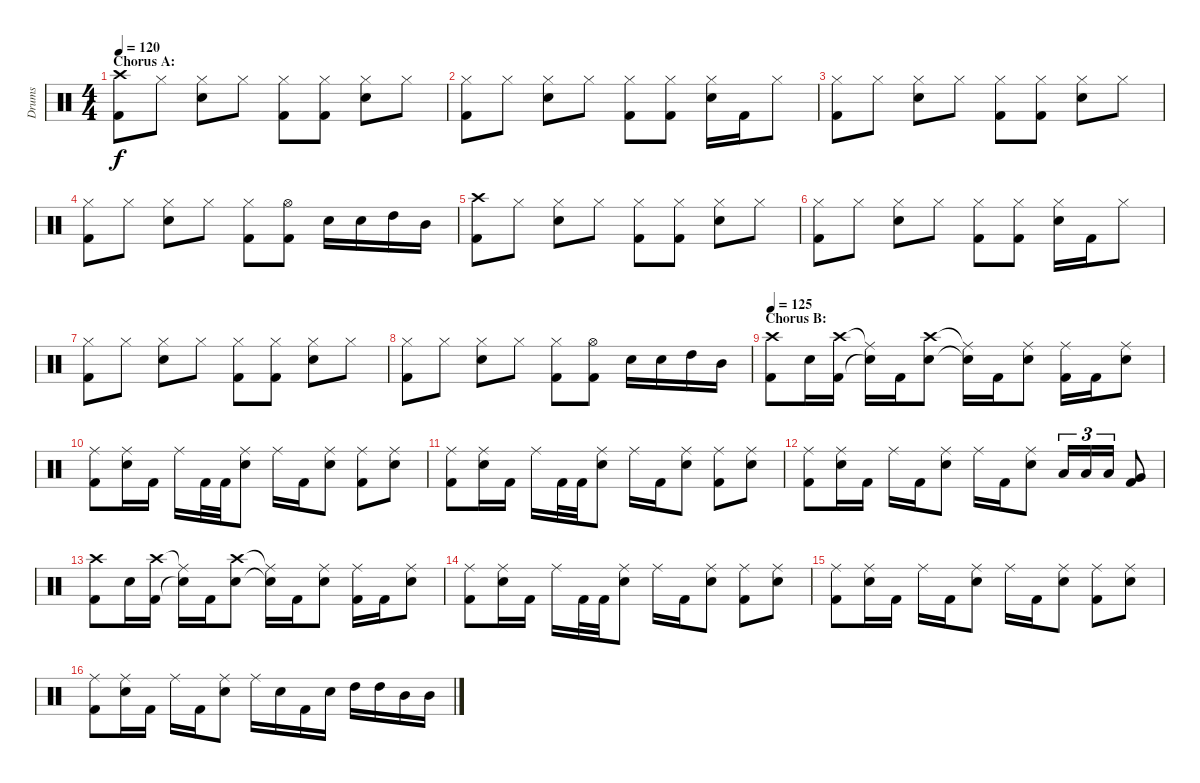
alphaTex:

\track ("Drums" "Drums") {instrument percussion}
\staff {score}
\articulation defaults
\ts (4 4)
\section ("" "Chorus A:")
\tempo 120
\clef neutral
\ks c
("Crash high (hit)" "Kick (hit) 2").8{dy f} "Hi-Hat (closed)".8 ("Hi-Hat (closed)" "Electric Snare (hit)").8 "Hi-Hat (closed)".8 ("Hi-Hat (closed)" "Kick (hit) 2").8 ("Hi-Hat (closed)" "Kick (hit) 2").8 ("Hi-Hat (closed)" "Electric Snare (hit)").8 "Hi-Hat (closed)".8 |
("Hi-Hat (closed)" "Kick (hit) 2").8 "Hi-Hat (closed)".8 ("Hi-Hat (closed)" "Electric Snare (hit)").8 "Hi-Hat (closed)".8 ("Hi-Hat (closed)" "Kick (hit) 2").8 ("Hi-Hat (closed)" "Kick (hit) 2").8 ("Hi-Hat (closed)" "Electric Snare (hit)").16 "Kick (hit) 2".16 "Hi-Hat (closed)".8 |
("Hi-Hat (closed)" "Kick (hit) 2").8 "Hi-Hat (closed)".8 ("Hi-Hat (closed)" "Electric Snare (hit)").8 "Hi-Hat (closed)".8 ("Hi-Hat (closed)" "Kick (hit) 2").8 ("Hi-Hat (closed)" "Kick (hit) 2").8 ("Hi-Hat (closed)" "Electric Snare (hit)").8 "Hi-Hat (closed)".8 |
("Hi-Hat (closed)" "Kick (hit) 2").8 "Hi-Hat (closed)".8 ("Hi-Hat (closed)" "Electric Snare (hit)").8 "Hi-Hat (closed)".8 ("Hi-Hat (closed)" "Kick (hit) 2").8 ("Hi-Hat (open)" "Kick (hit) 2").8 "Electric Snare (hit)".16 "Electric Snare (hit)".16 "High Tom (hit)".16 "Mid Tom (hit)".16 |
("Crash high (hit)" "Kick (hit) 2").8 "Hi-Hat (closed)".8 ("Hi-Hat (closed)" "Electric Snare (hit)").8 "Hi-Hat (closed)".8 ("Hi-Hat (closed)" "Kick (hit) 2").8 ("Hi-Hat (closed)" "Kick (hit) 2").8 ("Hi-Hat (closed)" "Electric Snare (hit)").8 "Hi-Hat (closed)".8 |
("Hi-Hat (closed)" "Kick (hit) 2").8 "Hi-Hat (closed)".8 ("Hi-Hat (closed)" "Electric Snare (hit)").8 "Hi-Hat (closed)".8 ("Hi-Hat (closed)" "Kick (hit) 2").8 ("Hi-Hat (closed)" "Kick (hit) 2").8 ("Hi-Hat (closed)" "Electric Snare (hit)").16 "Kick (hit) 2".16 "Hi-Hat (closed)".8 |
("Hi-Hat (closed)" "Kick (hit) 2").8 "Hi-Hat (closed)".8 ("Hi-Hat (closed)" "Electric Snare (hit)").8 "Hi-Hat (closed)".8 ("Hi-Hat (closed)" "Kick (hit) 2").8 ("Hi-Hat (closed)" "Kick (hit) 2").8 ("Hi-Hat (closed)" "Electric Snare (hit)").8 "Hi-Hat (closed)".8 |
("Hi-Hat (closed)" "Kick (hit) 2").8 "Hi-Hat (closed)".8 ("Hi-Hat (closed)" "Electric Snare (hit)").8 "Hi-Hat (closed)".8 ("Hi-Hat (closed)" "Kick (hit) 2").8 ("Hi-Hat (open)" "Kick (hit) 2").8 "Electric Snare (hit)".16 "Electric Snare (hit)".16 "High Tom (hit)".16 "Mid Tom (hit)".16 |
\section ("" "Chorus B:")
\tempo 125
("Crash high (hit)" "Kick (hit) 2").8 "Electric Snare (hit)".16 ("Crash high (hit)" "Kick (hit) 2").16 ("Ride (middle)"{t} "Snare (hit)"{t}).16 "Kick (hit) 2".16 ("Crash high (hit)" "Electric Snare (hit)").8 ("Ride (middle)"{t} "Snare (hit)"{t}).16 "Kick (hit) 2".16 ("Ride (middle)" "Electric Snare (hit)").8 ("Ride (middle)" "Kick (hit) 2").16 "Kick (hit) 2".16 ("Ride (middle)" "Electric Snare (hit)").8 |
("Ride (middle)" "Kick (hit) 2").8 ("Ride (middle)" "Electric Snare (hit)").16 "Kick (hit) 2".16 "Ride (middle)".16 "Kick (hit) 2".32 "Kick (hit) 2".32 ("Ride (middle)" "Electric Snare (hit)").8 "Ride (middle)".16 "Kick (hit) 2".16 ("Ride (middle)" "Electric Snare (hit)").8 ("Ride (middle)" "Kick (hit) 2").8 ("Ride (middle)" "Electric Snare (hit)").8 |
("Ride (middle)" "Kick (hit) 2").8 ("Ride (middle)" "Electric Snare (hit)").16 "Kick (hit) 2".16 "Ride (middle)".16 "Kick (hit) 2".32 "Kick (hit) 2".32 ("Ride (middle)" "Electric Snare (hit)").8 "Ride (middle)".16 "Kick (hit) 2".16 ("Ride (middle)" "Electric Snare (hit)").8 ("Ride (middle)" "Kick (hit) 2").8 ("Ride (middle)" "Electric Snare (hit)").8 |
("Ride (middle)" "Kick (hit) 2").8 ("Ride (middle)" "Electric Snare (hit)").16 "Kick (hit) 2".16 "Ride (middle)".16 "Kick (hit) 2".16 ("Ride (middle)" "Electric Snare (hit)").8 "Ride (middle)".16 "Kick (hit) 2".16 ("Ride (middle)" "Electric Snare (hit)").8 "Low Tom (hit)".16{tu (3 2)} "Low Tom (hit)".16{tu (3 2)} "Low Tom (hit)".16{tu (3 2)} ("Very Low Tom (hit)" "Kick (hit) 2").8 |
("Crash high (hit)" "Kick (hit) 2").8 "Electric Snare (hit)".16 ("Crash high (hit)" "Kick (hit) 2").16 ("Ride (middle)"{t} "Snare (hit)"{t}).16 "Kick (hit) 2".16 ("Crash high (hit)" "Electric Snare (hit)").8 ("Ride (middle)"{t} "Snare (hit)"{t}).16 "Kick (hit) 2".16 ("Ride (middle)" "Electric Snare (hit)").8 ("Ride (middle)" "Kick (hit) 2").16 "Kick (hit) 2".16 ("Ride (middle)" "Electric Snare (hit)").8 |
("Ride (middle)" "Kick (hit) 2").8 ("Ride (middle)" "Electric Snare (hit)").16 "Kick (hit) 2".16 "Ride (middle)".16 "Kick (hit) 2".32 "Kick (hit) 2".32 ("Ride (middle)" "Electric Snare (hit)").8 "Ride (middle)".16 "Kick (hit) 2".16 ("Ride (middle)" "Electric Snare (hit)").8 ("Ride (middle)" "Kick (hit) 2").8 ("Ride (middle)" "Electric Snare (hit)").8 |
("Ride (middle)" "Kick (hit) 2").8 ("Ride (middle)" "Electric Snare (hit)").16 "Kick (hit) 2".16 "Ride (middle)".16 "Kick (hit) 2".16 ("Ride (middle)" "Electric Snare (hit)").8 "Ride (middle)".16 "Kick (hit) 2".16 ("Ride (middle)" "Electric Snare (hit)").8 ("Ride (middle)" "Kick (hit) 2").8 ("Ride (middle)" "Electric Snare (hit)").8 |
("Ride (middle)" "Kick (hit) 2").8 ("Ride (middle)" "Electric Snare (hit)").16 "Kick (hit) 2".16 "Ride (middle)".16 "Kick (hit) 2".16 ("Ride (middle)" "Electric Snare (hit)").8 "Ride (middle)".16 "Electric Snare (hit)".16 "Kick (hit) 2".16 "Electric Snare (hit)".16 "High Tom (hit)".16 "High Tom (hit)".16 "Mid Tom (hit)".16 "Mid Tom (hit)".16
